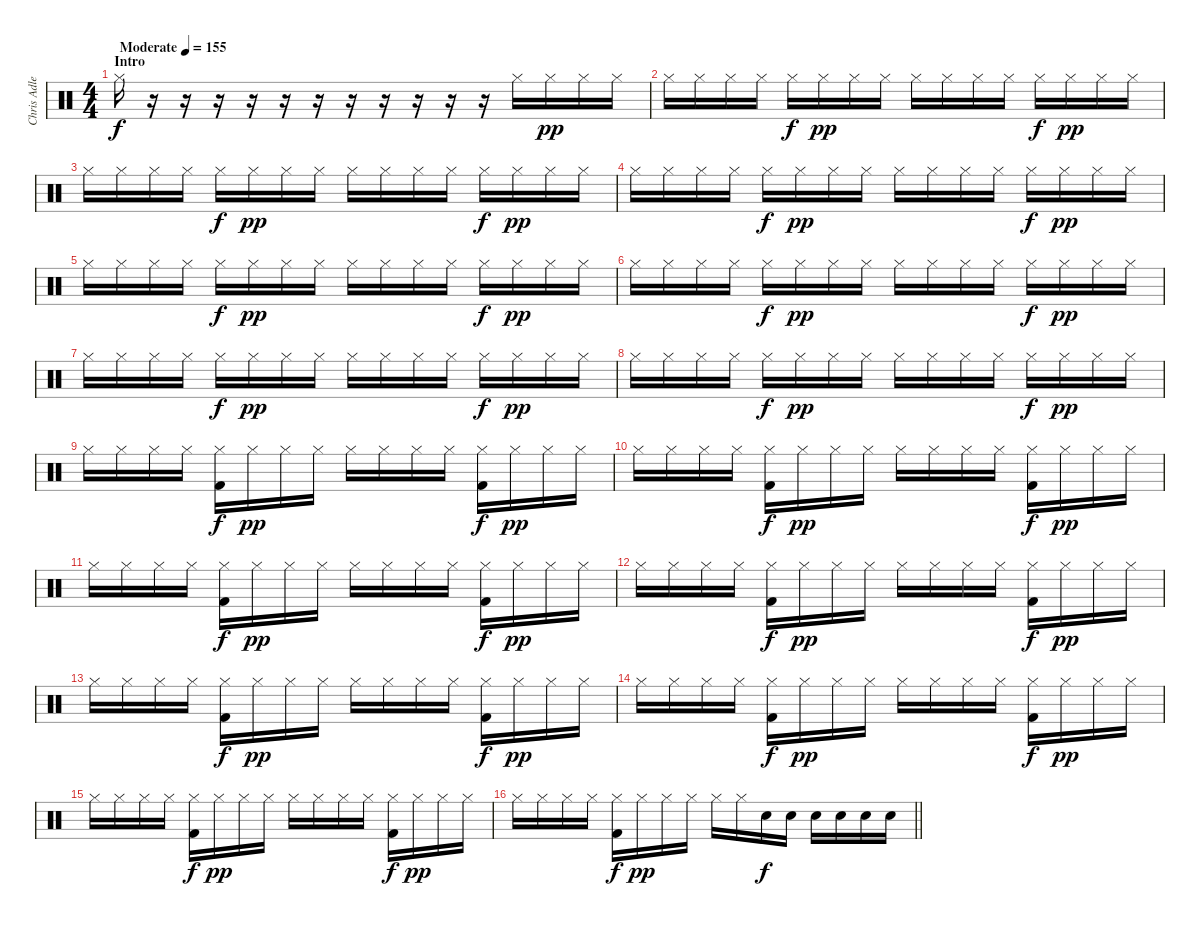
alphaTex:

\track ("Chris Adler" "Chris Adle") {instrument percussion}
\staff {score}
\articulation defaults
\ts (4 4)
\section ("" "Intro")
\tempo (155 "Moderate")
\clef neutral
\ks c "Hi-Hat (closed)".16{dy f}
r.16 r.16 r.16 r.16 r.16 r.16 r.16 r.16 r.16 r.16 r.16 "Hi-Hat (closed)".16 "Hi-Hat (closed)".16{dy pp} "Hi-Hat (closed)".16 "Hi-Hat (closed)".16 |
"Hi-Hat (closed)".16 "Hi-Hat (closed)".16 "Hi-Hat (closed)".16 "Hi-Hat (closed)".16 "Hi-Hat (closed)".16{dy f} "Hi-Hat (closed)".16{dy pp} "Hi-Hat (closed)".16 "Hi-Hat (closed)".16 "Hi-Hat (closed)".16 "Hi-Hat (closed)".16 "Hi-Hat (closed)".16 "Hi-Hat (closed)".16 "Hi-Hat (closed)".16{dy f} "Hi-Hat (closed)".16{dy pp} "Hi-Hat (closed)".16 "Hi-Hat (closed)".16 |
"Hi-Hat (closed)".16 "Hi-Hat (closed)".16 "Hi-Hat (closed)".16 "Hi-Hat (closed)".16 "Hi-Hat (closed)".16{dy f} "Hi-Hat (closed)".16{dy pp} "Hi-Hat (closed)".16 "Hi-Hat (closed)".16 "Hi-Hat (closed)".16 "Hi-Hat (closed)".16 "Hi-Hat (closed)".16 "Hi-Hat (closed)".16 "Hi-Hat (closed)".16{dy f} "Hi-Hat (closed)".16{dy pp} "Hi-Hat (closed)".16 "Hi-Hat (closed)".16 |
"Hi-Hat (closed)".16 "Hi-Hat (closed)".16 "Hi-Hat (closed)".16 "Hi-Hat (closed)".16 "Hi-Hat (closed)".16{dy f} "Hi-Hat (closed)".16{dy pp} "Hi-Hat (closed)".16 "Hi-Hat (closed)".16 "Hi-Hat (closed)".16 "Hi-Hat (closed)".16 "Hi-Hat (closed)".16 "Hi-Hat (closed)".16 "Hi-Hat (closed)".16{dy f} "Hi-Hat (closed)".16{dy pp} "Hi-Hat (closed)".16 "Hi-Hat (closed)".16 |
"Hi-Hat (closed)".16 "Hi-Hat (closed)".16 "Hi-Hat (closed)".16 "Hi-Hat (closed)".16 "Hi-Hat (closed)".16{dy f} "Hi-Hat (closed)".16{dy pp} "Hi-Hat (closed)".16 "Hi-Hat (closed)".16 "Hi-Hat (closed)".16 "Hi-Hat (closed)".16 "Hi-Hat (closed)".16 "Hi-Hat (closed)".16 "Hi-Hat (closed)".16{dy f} "Hi-Hat (closed)".16{dy pp} "Hi-Hat (closed)".16 "Hi-Hat (closed)".16 |
"Hi-Hat (closed)".16 "Hi-Hat (closed)".16 "Hi-Hat (closed)".16 "Hi-Hat (closed)".16 "Hi-Hat (closed)".16{dy f} "Hi-Hat (closed)".16{dy pp} "Hi-Hat (closed)".16 "Hi-Hat (closed)".16 "Hi-Hat (closed)".16 "Hi-Hat (closed)".16 "Hi-Hat (closed)".16 "Hi-Hat (closed)".16 "Hi-Hat (closed)".16{dy f} "Hi-Hat (closed)".16{dy pp} "Hi-Hat (closed)".16 "Hi-Hat (closed)".16 |
"Hi-Hat (closed)".16 "Hi-Hat (closed)".16 "Hi-Hat (closed)".16 "Hi-Hat (closed)".16 "Hi-Hat (closed)".16{dy f} "Hi-Hat (closed)".16{dy pp} "Hi-Hat (closed)".16 "Hi-Hat (closed)".16 "Hi-Hat (closed)".16 "Hi-Hat (closed)".16 "Hi-Hat (closed)".16 "Hi-Hat (closed)".16 "Hi-Hat (closed)".16{dy f} "Hi-Hat (closed)".16{dy pp} "Hi-Hat (closed)".16 "Hi-Hat (closed)".16 |
"Hi-Hat (closed)".16 "Hi-Hat (closed)".16 "Hi-Hat (closed)".16 "Hi-Hat (closed)".16 "Hi-Hat (closed)".16{dy f} "Hi-Hat (closed)".16{dy pp} "Hi-Hat (closed)".16 "Hi-Hat (closed)".16 "Hi-Hat (closed)".16 "Hi-Hat (closed)".16 "Hi-Hat (closed)".16 "Hi-Hat (closed)".16 "Hi-Hat (closed)".16{dy f} "Hi-Hat (closed)".16{dy pp} "Hi-Hat (closed)".16 "Hi-Hat (closed)".16 |
"Hi-Hat (closed)".16 "Hi-Hat (closed)".16 "Hi-Hat (closed)".16 "Hi-Hat (closed)".16 ("Hi-Hat (closed)" "Kick (hit) 2").16{dy f} "Hi-Hat (closed)".16{dy pp} "Hi-Hat (closed)".16 "Hi-Hat (closed)".16 "Hi-Hat (closed)".16 "Hi-Hat (closed)".16 "Hi-Hat (closed)".16 "Hi-Hat (closed)".16 ("Hi-Hat (closed)" "Kick (hit) 2").16{dy f} "Hi-Hat (closed)".16{dy pp} "Hi-Hat (closed)".16 "Hi-Hat (closed)".16 |
"Hi-Hat (closed)".16 "Hi-Hat (closed)".16 "Hi-Hat (closed)".16 "Hi-Hat (closed)".16 ("Hi-Hat (closed)" "Kick (hit) 2").16{dy f} "Hi-Hat (closed)".16{dy pp} "Hi-Hat (closed)".16 "Hi-Hat (closed)".16 "Hi-Hat (closed)".16 "Hi-Hat (closed)".16 "Hi-Hat (closed)".16 "Hi-Hat (closed)".16 ("Hi-Hat (closed)" "Kick (hit) 2").16{dy f} "Hi-Hat (closed)".16{dy pp} "Hi-Hat (closed)".16 "Hi-Hat (closed)".16 |
"Hi-Hat (closed)".16 "Hi-Hat (closed)".16 "Hi-Hat (closed)".16 "Hi-Hat (closed)".16 ("Hi-Hat (closed)" "Kick (hit) 2").16{dy f} "Hi-Hat (closed)".16{dy pp} "Hi-Hat (closed)".16 "Hi-Hat (closed)".16 "Hi-Hat (closed)".16 "Hi-Hat (closed)".16 "Hi-Hat (closed)".16 "Hi-Hat (closed)".16 ("Hi-Hat (closed)" "Kick (hit) 2").16{dy f} "Hi-Hat (closed)".16{dy pp} "Hi-Hat (closed)".16 "Hi-Hat (closed)".16 |
"Hi-Hat (closed)".16 "Hi-Hat (closed)".16 "Hi-Hat (closed)".16 "Hi-Hat (closed)".16 ("Hi-Hat (closed)" "Kick (hit) 2").16{dy f} "Hi-Hat (closed)".16{dy pp} "Hi-Hat (closed)".16 "Hi-Hat (closed)".16 "Hi-Hat (closed)".16 "Hi-Hat (closed)".16 "Hi-Hat (closed)".16 "Hi-Hat (closed)".16 ("Hi-Hat (closed)" "Kick (hit) 2").16{dy f} "Hi-Hat (closed)".16{dy pp} "Hi-Hat (closed)".16 "Hi-Hat (closed)".16 |
"Hi-Hat (closed)".16 "Hi-Hat (closed)".16 "Hi-Hat (closed)".16 "Hi-Hat (closed)".16 ("Hi-Hat (closed)" "Kick (hit) 2").16{dy f} "Hi-Hat (closed)".16{dy pp} "Hi-Hat (closed)".16 "Hi-Hat (closed)".16 "Hi-Hat (closed)".16 "Hi-Hat (closed)".16 "Hi-Hat (closed)".16 "Hi-Hat (closed)".16 ("Hi-Hat (closed)" "Kick (hit) 2").16{dy f} "Hi-Hat (closed)".16{dy pp} "Hi-Hat (closed)".16 "Hi-Hat (closed)".16 |
"Hi-Hat (closed)".16 "Hi-Hat (closed)".16 "Hi-Hat (closed)".16 "Hi-Hat (closed)".16 ("Hi-Hat (closed)" "Kick (hit) 2").16{dy f} "Hi-Hat (closed)".16{dy pp} "Hi-Hat (closed)".16 "Hi-Hat (closed)".16 "Hi-Hat (closed)".16 "Hi-Hat (closed)".16 "Hi-Hat (closed)".16 "Hi-Hat (closed)".16 ("Hi-Hat (closed)" "Kick (hit) 2").16{dy f} "Hi-Hat (closed)".16{dy pp} "Hi-Hat (closed)".16 "Hi-Hat (closed)".16 |
"Hi-Hat (closed)".16 "Hi-Hat (closed)".16 "Hi-Hat (closed)".16 "Hi-Hat (closed)".16 ("Hi-Hat (closed)" "Kick (hit) 2").16{dy f} "Hi-Hat (closed)".16{dy pp} "Hi-Hat (closed)".16 "Hi-Hat (closed)".16 "Hi-Hat (closed)".16 "Hi-Hat (closed)".16 "Hi-Hat (closed)".16 "Hi-Hat (closed)".16 ("Hi-Hat (closed)" "Kick (hit) 2").16{dy f} "Hi-Hat (closed)".16{dy pp} "Hi-Hat (closed)".16 "Hi-Hat (closed)".16 |
\barLineRight lightlight "Hi-Hat (closed)".16 "Hi-Hat (closed)".16 "Hi-Hat (closed)".16 "Hi-Hat (closed)".16
("Hi-Hat (closed)" "Kick (hit) 2").16{dy f} "Hi-Hat (closed)".16{dy pp} "Hi-Hat (closed)".16 "Hi-Hat (closed)".16 "Hi-Hat (closed)".16 "Hi-Hat (closed)".16 "Snare (hit) 2".16{dy f} "Snare (hit) 2".16 "Snare (hit) 2".16 "Snare (hit) 2".16 "Snare (hit) 2".16 "Snare (hit) 2".16
